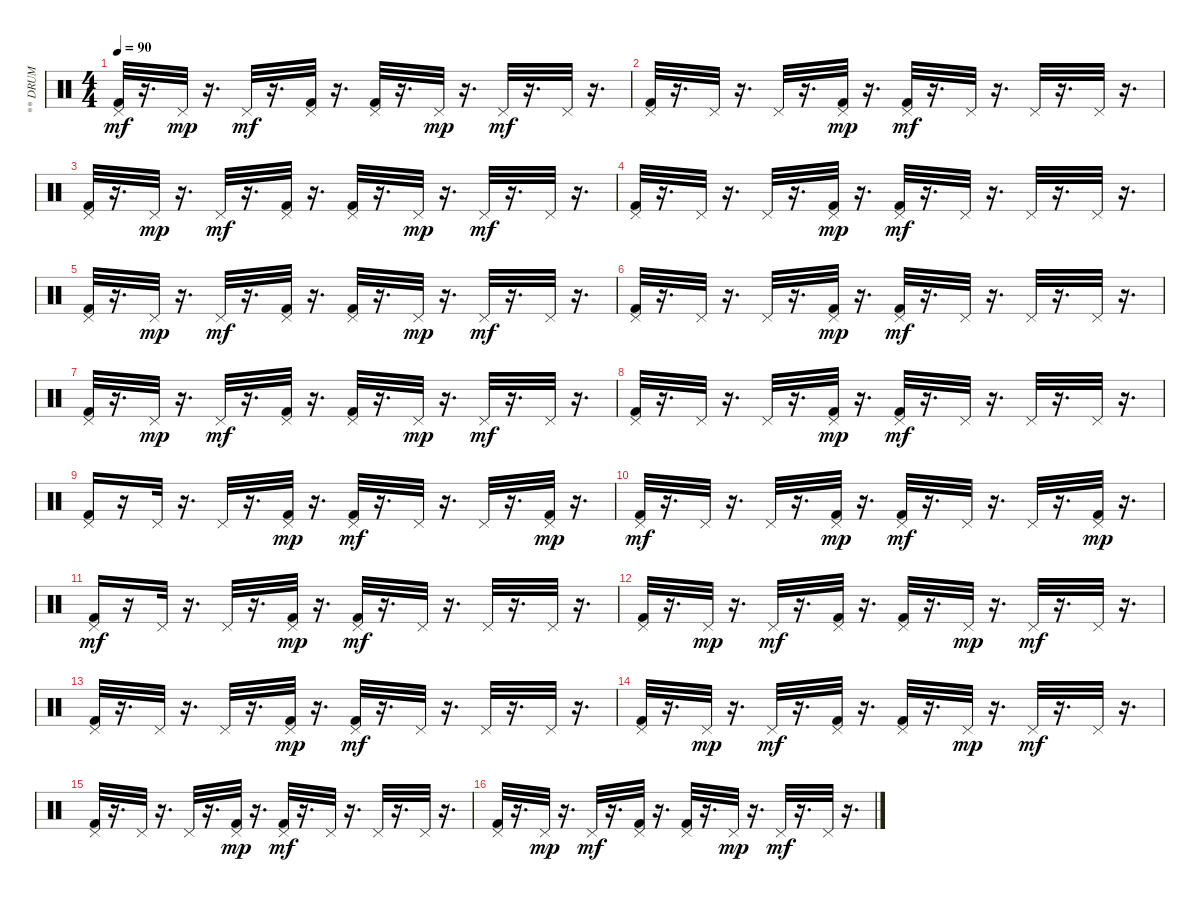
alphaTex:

\track ("** DRUM" "** DRUM") {instrument percussion}
\staff {score}
\articulation defaults
\ts (4 4)
\tempo 90
\clef neutral
\ks c
("Kick (hit) 2" "Pedal Hi-Hat (hit)").32{dy mf} r.16{d} "Pedal Hi-Hat (hit)".32{dy mp} r.16{d} "Pedal Hi-Hat (hit)".32{dy mf} r.16{d} ("Kick (hit) 2" "Pedal Hi-Hat (hit)").32 r.16{d} ("Kick (hit) 2" "Pedal Hi-Hat (hit)").32 r.16{d} "Pedal Hi-Hat (hit)".32{dy mp} r.16{d} "Pedal Hi-Hat (hit)".32{dy mf} r.16{d} "Pedal Hi-Hat (hit)".32 r.16{d} |
("Kick (hit) 2" "Pedal Hi-Hat (hit)").32 r.16{d} "Pedal Hi-Hat (hit)".32 r.16{d} "Pedal Hi-Hat (hit)".32 r.16{d} ("Kick (hit) 2" "Pedal Hi-Hat (hit)").32{dy mp} r.16{d} ("Kick (hit) 2" "Pedal Hi-Hat (hit)").32{dy mf} r.16{d} "Pedal Hi-Hat (hit)".32 r.16{d} "Pedal Hi-Hat (hit)".32 r.16{d} "Pedal Hi-Hat (hit)".32 r.16{d} |
("Kick (hit) 2" "Pedal Hi-Hat (hit)").32 r.16{d} "Pedal Hi-Hat (hit)".32{dy mp} r.16{d} "Pedal Hi-Hat (hit)".32{dy mf} r.16{d} ("Kick (hit) 2" "Pedal Hi-Hat (hit)").32 r.16{d} ("Kick (hit) 2" "Pedal Hi-Hat (hit)").32 r.16{d} "Pedal Hi-Hat (hit)".32{dy mp} r.16{d} "Pedal Hi-Hat (hit)".32{dy mf} r.16{d} "Pedal Hi-Hat (hit)".32 r.16{d} |
("Kick (hit) 2" "Pedal Hi-Hat (hit)").32 r.16{d} "Pedal Hi-Hat (hit)".32 r.16{d} "Pedal Hi-Hat (hit)".32 r.16{d} ("Kick (hit) 2" "Pedal Hi-Hat (hit)").32{dy mp} r.16{d} ("Kick (hit) 2" "Pedal Hi-Hat (hit)").32{dy mf} r.16{d} "Pedal Hi-Hat (hit)".32 r.16{d} "Pedal Hi-Hat (hit)".32 r.16{d} "Pedal Hi-Hat (hit)".32 r.16{d} |
("Kick (hit) 2" "Pedal Hi-Hat (hit)").32 r.16{d} "Pedal Hi-Hat (hit)".32{dy mp} r.16{d} "Pedal Hi-Hat (hit)".32{dy mf} r.16{d} ("Kick (hit) 2" "Pedal Hi-Hat (hit)").32 r.16{d} ("Kick (hit) 2" "Pedal Hi-Hat (hit)").32 r.16{d} "Pedal Hi-Hat (hit)".32{dy mp} r.16{d} "Pedal Hi-Hat (hit)".32{dy mf} r.16{d} "Pedal Hi-Hat (hit)".32 r.16{d} |
("Kick (hit) 2" "Pedal Hi-Hat (hit)").32 r.16{d} "Pedal Hi-Hat (hit)".32 r.16{d} "Pedal Hi-Hat (hit)".32 r.16{d} ("Kick (hit) 2" "Pedal Hi-Hat (hit)").32{dy mp} r.16{d} ("Kick (hit) 2" "Pedal Hi-Hat (hit)").32{dy mf} r.16{d} "Pedal Hi-Hat (hit)".32 r.16{d} "Pedal Hi-Hat (hit)".32 r.16{d} "Pedal Hi-Hat (hit)".32 r.16{d} |
("Kick (hit) 2" "Pedal Hi-Hat (hit)").32 r.16{d} "Pedal Hi-Hat (hit)".32{dy mp} r.16{d} "Pedal Hi-Hat (hit)".32{dy mf} r.16{d} ("Kick (hit) 2" "Pedal Hi-Hat (hit)").32 r.16{d} ("Kick (hit) 2" "Pedal Hi-Hat (hit)").32 r.16{d} "Pedal Hi-Hat (hit)".32{dy mp} r.16{d} "Pedal Hi-Hat (hit)".32{dy mf} r.16{d} "Pedal Hi-Hat (hit)".32 r.16{d} |
("Kick (hit) 2" "Pedal Hi-Hat (hit)").32 r.16{d} "Pedal Hi-Hat (hit)".32 r.16{d} "Pedal Hi-Hat (hit)".32 r.16{d} ("Kick (hit) 2" "Pedal Hi-Hat (hit)").32{dy mp} r.16{d} ("Kick (hit) 2" "Pedal Hi-Hat (hit)").32{dy mf} r.16{d} "Pedal Hi-Hat (hit)".32 r.16{d} "Pedal Hi-Hat (hit)".32 r.16{d} "Pedal Hi-Hat (hit)".32 r.16{d} |
("Kick (hit) 2" "Pedal Hi-Hat (hit)").16 r.16 "Pedal Hi-Hat (hit)".32 r.16{d} "Pedal Hi-Hat (hit)".32 r.16{d} ("Kick (hit) 2" "Pedal Hi-Hat (hit)").32{dy mp} r.16{d} ("Kick (hit) 2" "Pedal Hi-Hat (hit)").32{dy mf} r.16{d} "Pedal Hi-Hat (hit)".32 r.16{d} "Pedal Hi-Hat (hit)".32 r.16{d} ("Kick (hit) 2" "Pedal Hi-Hat (hit)").32{dy mp} r.16{d} |
("Kick (hit) 2" "Pedal Hi-Hat (hit)").32{dy mf} r.16{d} "Pedal Hi-Hat (hit)".32 r.16{d} "Pedal Hi-Hat (hit)".32 r.16{d} ("Kick (hit) 2" "Pedal Hi-Hat (hit)").32{dy mp} r.16{d} ("Kick (hit) 2" "Pedal Hi-Hat (hit)").32{dy mf} r.16{d} "Pedal Hi-Hat (hit)".32 r.16{d} "Pedal Hi-Hat (hit)".32 r.16{d} ("Kick (hit) 2" "Pedal Hi-Hat (hit)").32{dy mp} r.16{d} |
("Kick (hit) 2" "Pedal Hi-Hat (hit)").16{dy mf} r.16 "Pedal Hi-Hat (hit)".32 r.16{d} "Pedal Hi-Hat (hit)".32 r.16{d} ("Kick (hit) 2" "Pedal Hi-Hat (hit)").32{dy mp} r.16{d} ("Kick (hit) 2" "Pedal Hi-Hat (hit)").32{dy mf} r.16{d} "Pedal Hi-Hat (hit)".32 r.16{d} "Pedal Hi-Hat (hit)".32 r.16{d} "Pedal Hi-Hat (hit)".32 r.16{d} |
("Kick (hit) 2" "Pedal Hi-Hat (hit)").32 r.16{d} "Pedal Hi-Hat (hit)".32{dy mp} r.16{d} "Pedal Hi-Hat (hit)".32{dy mf} r.16{d} ("Kick (hit) 2" "Pedal Hi-Hat (hit)").32 r.16{d} ("Kick (hit) 2" "Pedal Hi-Hat (hit)").32 r.16{d} "Pedal Hi-Hat (hit)".32{dy mp} r.16{d} "Pedal Hi-Hat (hit)".32{dy mf} r.16{d} "Pedal Hi-Hat (hit)".32 r.16{d} |
("Kick (hit) 2" "Pedal Hi-Hat (hit)").32 r.16{d} "Pedal Hi-Hat (hit)".32 r.16{d} "Pedal Hi-Hat (hit)".32 r.16{d} ("Kick (hit) 2" "Pedal Hi-Hat (hit)").32{dy mp} r.16{d} ("Kick (hit) 2" "Pedal Hi-Hat (hit)").32{dy mf} r.16{d} "Pedal Hi-Hat (hit)".32 r.16{d} "Pedal Hi-Hat (hit)".32 r.16{d} "Pedal Hi-Hat (hit)".32 r.16{d} |
("Kick (hit) 2" "Pedal Hi-Hat (hit)").32 r.16{d} "Pedal Hi-Hat (hit)".32{dy mp} r.16{d} "Pedal Hi-Hat (hit)".32{dy mf} r.16{d} ("Kick (hit) 2" "Pedal Hi-Hat (hit)").32 r.16{d} ("Kick (hit) 2" "Pedal Hi-Hat (hit)").32 r.16{d} "Pedal Hi-Hat (hit)".32{dy mp} r.16{d} "Pedal Hi-Hat (hit)".32{dy mf} r.16{d} "Pedal Hi-Hat (hit)".32 r.16{d} |
("Kick (hit) 2" "Pedal Hi-Hat (hit)").32 r.16{d} "Pedal Hi-Hat (hit)".32 r.16{d} "Pedal Hi-Hat (hit)".32 r.16{d} ("Kick (hit) 2" "Pedal Hi-Hat (hit)").32{dy mp} r.16{d} ("Kick (hit) 2" "Pedal Hi-Hat (hit)").32{dy mf} r.16{d} "Pedal Hi-Hat (hit)".32 r.16{d} "Pedal Hi-Hat (hit)".32 r.16{d} "Pedal Hi-Hat (hit)".32 r.16{d} |
("Kick (hit) 2" "Pedal Hi-Hat (hit)").32 r.16{d} "Pedal Hi-Hat (hit)".32{dy mp} r.16{d} "Pedal Hi-Hat (hit)".32{dy mf} r.16{d} ("Kick (hit) 2" "Pedal Hi-Hat (hit)").32 r.16{d} ("Kick (hit) 2" "Pedal Hi-Hat (hit)").32 r.16{d} "Pedal Hi-Hat (hit)".32{dy mp} r.16{d} "Pedal Hi-Hat (hit)".32{dy mf} r.16{d} "Pedal Hi-Hat (hit)".32 r.16{d}
